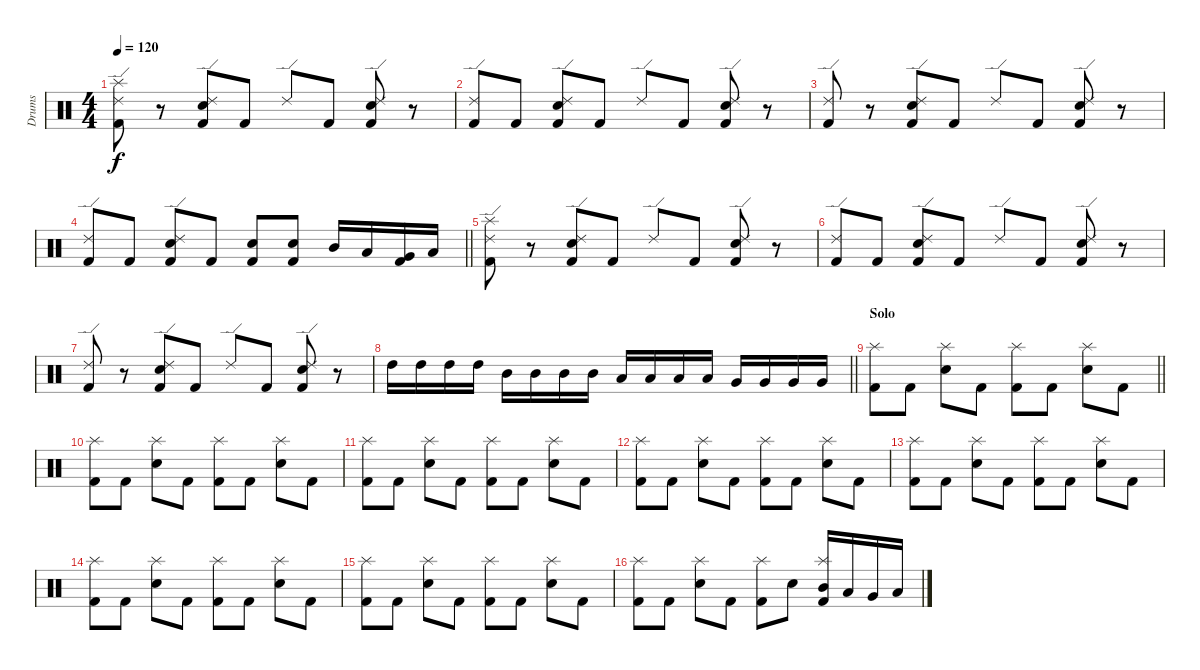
\track ("Drums" "Drums") {instrument percussion}
\staff {score}
\articulation defaults
\ts (4 4)
\tempo 120
\clef neutral
\ks c
("Kick (hit) 2" "Ride (edge) 2" "Splash (hit)").8{dy f} r.8 ("Ride (edge) 2" "Kick (hit) 2" "Snare (hit) 2").8 "Kick (hit) 2".8 "Ride (edge) 2".8 "Kick (hit) 2".8 ("Ride (edge) 2" "Kick (hit) 2" "Snare (hit) 2").8 r.8 |
("Kick (hit) 2" "Ride (edge) 2").8 "Kick (hit) 2".8 ("Snare (hit) 2" "Kick (hit) 2" "Ride (edge) 2").8 "Kick (hit) 2".8 "Ride (edge) 2".8 "Kick (hit) 2".8 ("Snare (hit) 2" "Kick (hit) 2" "Ride (edge) 2").8 r.8 |
("Kick (hit) 2" "Ride (edge) 2").8 r.8 ("Snare (hit) 2" "Kick (hit) 2" "Ride (edge) 2").8 "Kick (hit) 2".8 "Ride (edge) 2".8 "Kick (hit) 2".8 ("Snare (hit) 2" "Kick (hit) 2" "Ride (edge) 2").8 r.8 |
\barLineRight lightlight
("Kick (hit) 2" "Ride (edge) 2").8 "Kick (hit) 2".8 ("Snare (hit) 2" "Kick (hit) 2" "Ride (edge) 2").8 "Kick (hit) 2".8 ("Snare (hit) 2" "Kick (hit) 2").8 ("Snare (hit) 2" "Kick (hit) 2").8 "Mid Tom (hit)".16 "Low Tom (hit)".16 ("Very Low Tom (hit)" "Kick (hit) 2").16 "Low Floor Tom (hit)".16 |
("Kick (hit) 2" "Ride (edge) 2" "Splash (hit)").8 r.8 ("Ride (edge) 2" "Kick (hit) 2" "Snare (hit) 2").8 "Kick (hit) 2".8 "Ride (edge) 2".8 "Kick (hit) 2".8 ("Ride (edge) 2" "Kick (hit) 2" "Snare (hit) 2").8 r.8 |
("Kick (hit) 2" "Ride (edge) 2").8 "Kick (hit) 2".8 ("Snare (hit) 2" "Kick (hit) 2" "Ride (edge) 2").8 "Kick (hit) 2".8 "Ride (edge) 2".8 "Kick (hit) 2".8 ("Snare (hit) 2" "Kick (hit) 2" "Ride (edge) 2").8 r.8 |
("Kick (hit) 2" "Ride (edge) 2").8 r.8 ("Snare (hit) 2" "Kick (hit) 2" "Ride (edge) 2").8 "Kick (hit) 2".8 "Ride (edge) 2".8 "Kick (hit) 2".8 ("Snare (hit) 2" "Kick (hit) 2" "Ride (edge) 2").8 r.8 |
\barLineRight lightlight "High Tom (hit)".16 "High Tom (hit)".16 "High Tom (hit)".16 "High Tom (hit)".16 "Mid Tom (hit)".16 "Mid Tom (hit)".16 "Mid Tom (hit)".16 "Mid Tom (hit)".16 "Low Tom (hit)".16 "Low Tom (hit)".16 "Low Tom (hit)".16 "Low Tom (hit)".16 "Very Low Tom (hit)".16 "Very Low Tom (hit)".16 "Very Low Tom (hit)".16 "Very Low Tom (hit)".16
|
\section ("" "Solo")
\barLineRight lightlight
("Splash (hit)" "Kick (hit) 2").8 "Kick (hit) 2".8 ("Snare (hit) 2" "Splash (hit)").8 "Kick (hit) 2".8 ("Splash (hit)" "Kick (hit) 2").8 "Kick (hit) 2".8 ("Snare (hit) 2" "Splash (hit)").8 "Kick (hit) 2".8 |
("Splash (hit)" "Kick (hit) 2").8 "Kick (hit) 2".8 ("Snare (hit) 2" "Splash (hit)").8 "Kick (hit) 2".8 ("Splash (hit)" "Kick (hit) 2").8 "Kick (hit) 2".8 ("Snare (hit) 2" "Splash (hit)").8 "Kick (hit) 2".8 |
("Kick (hit) 2" "Splash (hit)").8 "Kick (hit) 2".8 ("Splash (hit)" "Snare (hit) 2").8 "Kick (hit) 2".8 ("Kick (hit) 2" "Splash (hit)").8 "Kick (hit) 2".8 ("Splash (hit)" "Snare (hit) 2").8 "Kick (hit) 2".8 |
("Kick (hit) 2" "Splash (hit)").8 "Kick (hit) 2".8 ("Snare (hit) 2" "Splash (hit)").8 "Kick (hit) 2".8 ("Kick (hit) 2" "Splash (hit)").8 "Kick (hit) 2".8 ("Snare (hit) 2" "Splash (hit)").8 "Kick (hit) 2".8 |
("Splash (hit)" "Kick (hit) 2").8 "Kick (hit) 2".8 ("Snare (hit) 2" "Splash (hit)").8 "Kick (hit) 2".8 ("Splash (hit)" "Kick (hit) 2").8 "Kick (hit) 2".8 ("Snare (hit) 2" "Splash (hit)").8 "Kick (hit) 2".8 |
("Splash (hit)" "Kick (hit) 2").8 "Kick (hit) 2".8 ("Snare (hit) 2" "Splash (hit)").8 "Kick (hit) 2".8 ("Splash (hit)" "Kick (hit) 2").8 "Kick (hit) 2".8 ("Snare (hit) 2" "Splash (hit)").8 "Kick (hit) 2".8 |
("Kick (hit) 2" "Splash (hit)").8 "Kick (hit) 2".8 ("Splash (hit)" "Snare (hit) 2").8 "Kick (hit) 2".8 ("Kick (hit) 2" "Splash (hit)").8 "Kick (hit) 2".8 ("Splash (hit)" "Snare (hit) 2").8 "Kick (hit) 2".8 |
("Kick (hit) 2" "Splash (hit)").8 "Kick (hit) 2".8 ("Snare (hit) 2" "Splash (hit)").8 "Kick (hit) 2".8 ("Kick (hit) 2" "Splash (hit)").8 "Snare (hit) 2".8 ("Splash (hit)" "Kick (hit) 2" "Mid Tom (hit)").16 "Low Tom (hit)".16 "Very Low Tom (hit)".16 "Low Floor Tom (hit)".16
